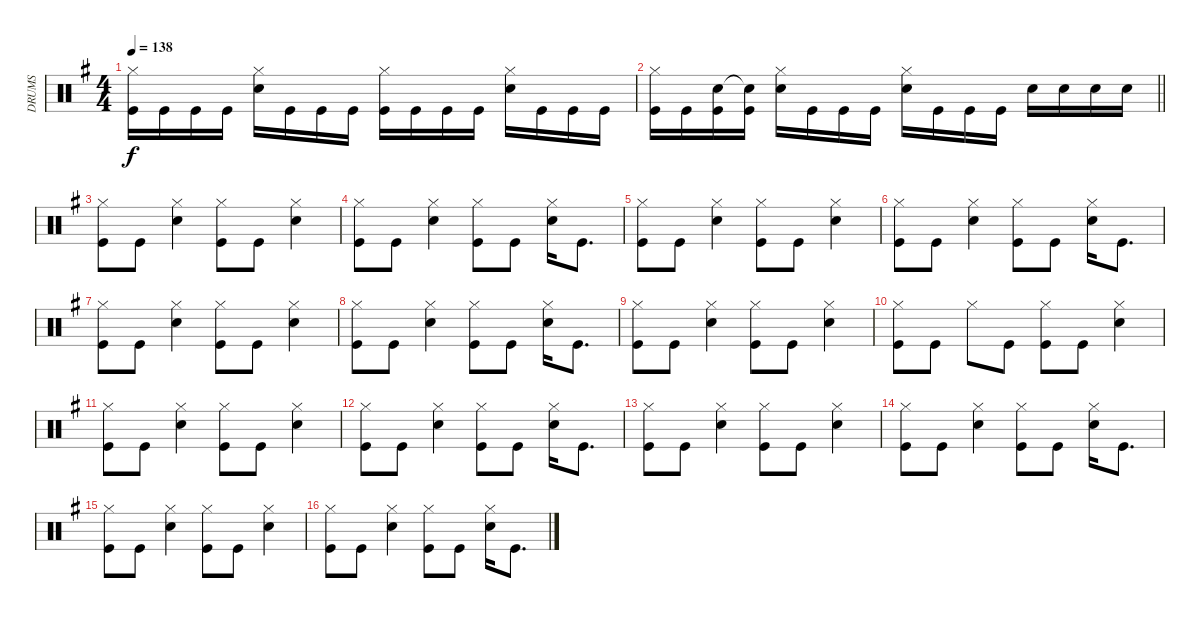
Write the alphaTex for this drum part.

\track ("DRUMS" "DRUMS") {instrument percussion}
\staff {score}
\articulation defaults
\ts (4 4)
\tempo 138
\clef neutral
\ks eminor
("Hi-Hat (closed)" "Kick (hit)").16{dy f} "Kick (hit)".16 "Kick (hit)".16 "Kick (hit)".16 ("Hi-Hat (closed)" "Snare (hit) 2").16 "Kick (hit)".16 "Kick (hit)".16 "Kick (hit)".16 ("Hi-Hat (closed)" "Kick (hit)").16 "Kick (hit)".16 "Kick (hit)".16 "Kick (hit)".16 ("Hi-Hat (closed)" "Snare (hit) 2").16 "Kick (hit)".16 "Kick (hit)".16 "Kick (hit)".16 |
\barLineRight lightlight
("Hi-Hat (closed)" "Kick (hit)").16 "Kick (hit)".16 ("Snare (hit) 2" "Kick (hit)").16 ("Snare (hit)"{t} "Kick (hit)").16 ("Hi-Hat (closed)" "Snare (hit) 2").16 "Kick (hit)".16 "Kick (hit)".16 "Kick (hit)".16 ("Hi-Hat (closed)" "Snare (hit) 2").16 "Kick (hit)".16 "Kick (hit)".16 "Kick (hit)".16 "Snare (hit) 2".16 "Snare (hit) 2".16 "Snare (hit) 2".16 "Snare (hit) 2".16 |
("Hi-Hat (closed)" "Kick (hit)").8 "Kick (hit)".8 ("Hi-Hat (closed)" "Snare (hit) 2").4 ("Hi-Hat (closed)" "Kick (hit)").8 "Kick (hit)".8 ("Hi-Hat (closed)" "Snare (hit) 2").4 |
("Hi-Hat (closed)" "Kick (hit)").8 "Kick (hit)".8 ("Hi-Hat (closed)" "Snare (hit) 2").4 ("Hi-Hat (closed)" "Kick (hit)").8 "Kick (hit)".8 ("Hi-Hat (closed)" "Snare (hit) 2").16 "Kick (hit)".8{d} |
("Hi-Hat (closed)" "Kick (hit)").8 "Kick (hit)".8 ("Hi-Hat (closed)" "Snare (hit) 2").4 ("Hi-Hat (closed)" "Kick (hit)").8 "Kick (hit)".8 ("Hi-Hat (closed)" "Snare (hit) 2").4 |
("Hi-Hat (closed)" "Kick (hit)").8 "Kick (hit)".8 ("Hi-Hat (closed)" "Snare (hit) 2").4 ("Hi-Hat (closed)" "Kick (hit)").8 "Kick (hit)".8 ("Hi-Hat (closed)" "Snare (hit) 2").16 "Kick (hit)".8{d} |
("Hi-Hat (closed)" "Kick (hit)").8 "Kick (hit)".8 ("Hi-Hat (closed)" "Snare (hit) 2").4 ("Hi-Hat (closed)" "Kick (hit)").8 "Kick (hit)".8 ("Hi-Hat (closed)" "Snare (hit) 2").4 |
("Hi-Hat (closed)" "Kick (hit)").8 "Kick (hit)".8 ("Hi-Hat (closed)" "Snare (hit) 2").4 ("Hi-Hat (closed)" "Kick (hit)").8 "Kick (hit)".8 ("Hi-Hat (closed)" "Snare (hit) 2").16 "Kick (hit)".8{d} |
("Hi-Hat (closed)" "Kick (hit)").8 "Kick (hit)".8 ("Hi-Hat (closed)" "Snare (hit) 2").4 ("Hi-Hat (closed)" "Kick (hit)").8 "Kick (hit)".8 ("Hi-Hat (closed)" "Snare (hit) 2").4 |
("Hi-Hat (closed)" "Kick (hit)").8 "Kick (hit)".8 "Hi-Hat (closed)".8 "Kick (hit)".8 ("Hi-Hat (closed)" "Kick (hit)").8 "Kick (hit)".8 ("Hi-Hat (closed)" "Snare (hit) 2").4 |
("Hi-Hat (closed)" "Kick (hit)").8 "Kick (hit)".8 ("Hi-Hat (closed)" "Snare (hit) 2").4 ("Hi-Hat (closed)" "Kick (hit)").8 "Kick (hit)".8 ("Hi-Hat (closed)" "Snare (hit) 2").4 |
("Hi-Hat (closed)" "Kick (hit)").8 "Kick (hit)".8 ("Hi-Hat (closed)" "Snare (hit) 2").4 ("Hi-Hat (closed)" "Kick (hit)").8 "Kick (hit)".8 ("Hi-Hat (closed)" "Snare (hit) 2").16 "Kick (hit)".8{d} |
("Hi-Hat (closed)" "Kick (hit)").8 "Kick (hit)".8 ("Hi-Hat (closed)" "Snare (hit) 2").4 ("Hi-Hat (closed)" "Kick (hit)").8 "Kick (hit)".8 ("Hi-Hat (closed)" "Snare (hit) 2").4 |
("Hi-Hat (closed)" "Kick (hit)").8 "Kick (hit)".8 ("Hi-Hat (closed)" "Snare (hit) 2").4 ("Hi-Hat (closed)" "Kick (hit)").8 "Kick (hit)".8 ("Hi-Hat (closed)" "Snare (hit) 2").16 "Kick (hit)".8{d} |
("Hi-Hat (closed)" "Kick (hit)").8 "Kick (hit)".8 ("Hi-Hat (closed)" "Snare (hit) 2").4 ("Hi-Hat (closed)" "Kick (hit)").8 "Kick (hit)".8 ("Hi-Hat (closed)" "Snare (hit) 2").4 |
("Hi-Hat (closed)" "Kick (hit)").8 "Kick (hit)".8 ("Hi-Hat (closed)" "Snare (hit) 2").4 ("Hi-Hat (closed)" "Kick (hit)").8 "Kick (hit)".8 ("Hi-Hat (closed)" "Snare (hit) 2").16 "Kick (hit)".8{d}
